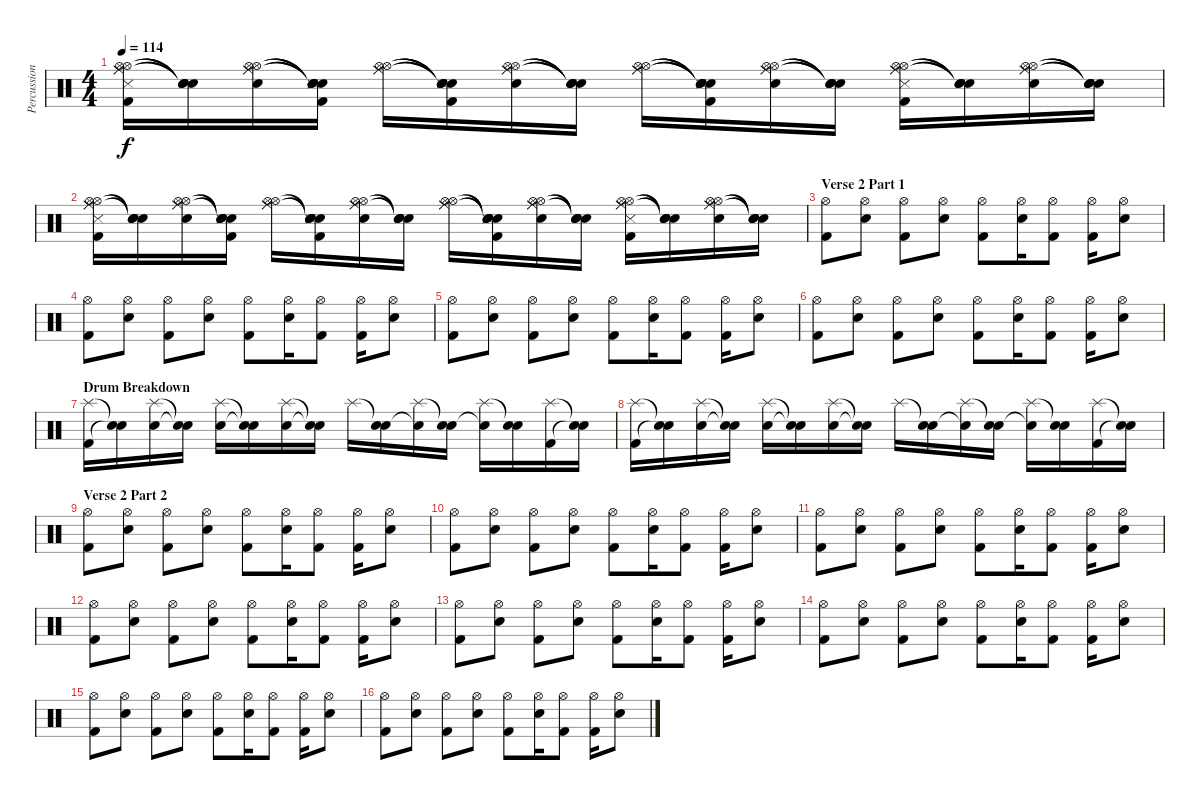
\track ("Percussion" "Percussion") {instrument percussion}
\staff {score}
\articulation defaults
\ts (4 4)
\tempo 114
\clef neutral
\ks c
("Ride (middle)" "Hi-Hat (open)" "Hi-Hat (open)" "Ride (middle)" "Snare (side stick) 3" "Kick (hit) 2").16{dy f} ("Snare (hit)"{t} "Snare (hit)"{t} "Snare (hit)"{t} "Snare (hit)"{t}).16 ("Ride (middle)" "Hi-Hat (open)" "Hi-Hat (open)" "Ride (middle)" "Snare (hit) 2").16 ("Snare (hit)"{t} "Snare (hit)"{t} "Snare (hit)"{t} "Snare (hit)"{t} "Snare (side stick) 3" "Kick (hit) 2").16 ("Ride (middle)" "Hi-Hat (open)" "Hi-Hat (open)" "Ride (middle)").16 ("Snare (hit)"{t} "Snare (hit)"{t} "Snare (hit)"{t} "Snare (hit)"{t} "Snare (side stick) 3" "Kick (hit) 2").16 ("Ride (middle)" "Hi-Hat (open)" "Hi-Hat (open)" "Ride (middle)" "Snare (hit) 2").16 ("Snare (hit)"{t} "Snare (hit)"{t} "Snare (hit)"{t} "Snare (hit)"{t}).16 ("Ride (middle)" "Hi-Hat (open)" "Hi-Hat (open)" "Ride (middle)").16 ("Snare (hit)"{t} "Snare (hit)"{t} "Snare (hit)"{t} "Snare (hit)"{t} "Snare (side stick) 3" "Kick (hit) 2").16 ("Ride (middle)" "Hi-Hat (open)" "Hi-Hat (open)" "Ride (middle)" "Snare (hit) 2").16 ("Snare (hit)"{t} "Snare (hit)"{t} "Snare (hit)"{t} "Snare (hit)"{t}).16 ("Ride (middle)" "Hi-Hat (open)" "Hi-Hat (open)" "Ride (middle)" "Snare (side stick) 3" "Kick (hit) 2").16 ("Snare (hit)"{t} "Snare (hit)"{t} "Snare (hit)"{t} "Snare (hit)"{t}).16 ("Ride (middle)" "Hi-Hat (open)" "Hi-Hat (open)" "Ride (middle)" "Snare (hit) 2").16 ("Snare (hit)"{t} "Snare (hit)"{t} "Snare (hit)"{t} "Snare (hit)"{t}).16 |
("Ride (middle)" "Hi-Hat (open)" "Hi-Hat (open)" "Ride (middle)" "Snare (side stick) 3" "Kick (hit) 2").16 ("Snare (hit)"{t} "Snare (hit)"{t} "Snare (hit)"{t} "Snare (hit)"{t}).16 ("Ride (middle)" "Hi-Hat (open)" "Hi-Hat (open)" "Ride (middle)" "Snare (hit) 2").16 ("Snare (hit)"{t} "Snare (hit)"{t} "Snare (hit)"{t} "Snare (hit)"{t} "Snare (side stick) 3" "Kick (hit) 2").16 ("Ride (middle)" "Hi-Hat (open)" "Hi-Hat (open)" "Ride (middle)").16 ("Snare (hit)"{t} "Snare (hit)"{t} "Snare (hit)"{t} "Snare (hit)"{t} "Snare (side stick) 3" "Kick (hit) 2").16 ("Ride (middle)" "Hi-Hat (open)" "Hi-Hat (open)" "Ride (middle)" "Snare (hit) 2").16 ("Snare (hit)"{t} "Snare (hit)"{t} "Snare (hit)"{t} "Snare (hit)"{t}).16 ("Ride (middle)" "Hi-Hat (open)" "Hi-Hat (open)" "Ride (middle)").16 ("Snare (hit)"{t} "Snare (hit)"{t} "Snare (hit)"{t} "Snare (hit)"{t} "Snare (side stick) 3" "Kick (hit) 2").16 ("Ride (middle)" "Hi-Hat (open)" "Hi-Hat (open)" "Ride (middle)" "Snare (hit) 2").16 ("Snare (hit)"{t} "Snare (hit)"{t} "Snare (hit)"{t} "Snare (hit)"{t}).16 ("Ride (middle)" "Hi-Hat (open)" "Hi-Hat (open)" "Ride (middle)" "Snare (side stick) 3" "Kick (hit) 2").16 ("Snare (hit)"{t} "Snare (hit)"{t} "Snare (hit)"{t} "Snare (hit)"{t}).16 ("Ride (middle)" "Hi-Hat (open)" "Hi-Hat (open)" "Ride (middle)" "Snare (hit) 2").16 ("Snare (hit)"{t} "Snare (hit)"{t} "Snare (hit)"{t} "Snare (hit)"{t}).16 |
\section ("" "Verse 2 Part 1")
("Hi-Hat (open)" "Kick (hit) 2").8 ("Hi-Hat (open)" "Snare (hit) 2").8 ("Hi-Hat (open)" "Kick (hit) 2").8 ("Hi-Hat (open)" "Snare (hit) 2").8 ("Hi-Hat (open)" "Kick (hit) 2").8 ("Hi-Hat (open)" "Snare (hit) 2").16 ("Hi-Hat (open)" "Kick (hit) 2").8 ("Hi-Hat (open)" "Kick (hit) 2").16 ("Hi-Hat (open)" "Snare (hit) 2").8 |
("Hi-Hat (open)" "Kick (hit) 2").8 ("Hi-Hat (open)" "Snare (hit) 2").8 ("Hi-Hat (open)" "Kick (hit) 2").8 ("Hi-Hat (open)" "Snare (hit) 2").8 ("Hi-Hat (open)" "Kick (hit) 2").8 ("Hi-Hat (open)" "Snare (hit) 2").16 ("Hi-Hat (open)" "Kick (hit) 2").8 ("Hi-Hat (open)" "Kick (hit) 2").16 ("Hi-Hat (open)" "Snare (hit) 2").8 |
("Hi-Hat (open)" "Kick (hit) 2").8 ("Hi-Hat (open)" "Snare (hit) 2").8 ("Hi-Hat (open)" "Kick (hit) 2").8 ("Hi-Hat (open)" "Snare (hit) 2").8 ("Hi-Hat (open)" "Kick (hit) 2").8 ("Hi-Hat (open)" "Snare (hit) 2").16 ("Hi-Hat (open)" "Kick (hit) 2").8 ("Hi-Hat (open)" "Kick (hit) 2").16 ("Hi-Hat (open)" "Snare (hit) 2").8 |
("Hi-Hat (open)" "Kick (hit) 2").8 ("Hi-Hat (open)" "Snare (hit) 2").8 ("Hi-Hat (open)" "Kick (hit) 2").8 ("Hi-Hat (open)" "Snare (hit) 2").8 ("Hi-Hat (open)" "Kick (hit) 2").8 ("Hi-Hat (open)" "Snare (hit) 2").16 ("Hi-Hat (open)" "Kick (hit) 2").8 ("Hi-Hat (open)" "Kick (hit) 2").16 ("Hi-Hat (open)" "Snare (hit) 2").8 |
\section ("" "Drum Breakdown")
("Splash (hit)" "Kick (hit) 2").16 ("Snare (hit)"{t} "Snare (hit)"{t}).16 ("Splash (hit)" "Snare (hit) 2").16 ("Snare (hit)"{t} "Snare (hit) 2"{t}).16 ("Splash (hit)" "Snare (hit) 2").16 ("Snare (hit)"{t} "Snare (hit)"{t}).16 ("Splash (hit)" "Snare (hit) 2").16 ("Snare (hit)"{t} "Snare (hit)"{t}).16 "Splash (hit)".16 ("Snare (hit)"{t} "Snare (hit) 2").16 ("Splash (hit)" "Snare (hit)"{t}).16 ("Snare (hit)"{t} "Snare (hit) 2").16 ("Splash (hit)" "Snare (hit)"{t}).16 ("Snare (hit)"{t} "Snare (hit) 2").16 ("Splash (hit)" "Kick (hit) 2").16 ("Snare (hit)"{t} "Snare (hit)"{t}).16 |
("Splash (hit)" "Kick (hit) 2").16 ("Snare (hit)"{t} "Snare (hit)"{t}).16 ("Splash (hit)" "Snare (hit) 2").16 ("Snare (hit)"{t} "Snare (hit) 2"{t}).16 ("Splash (hit)" "Snare (hit) 2").16 ("Snare (hit)"{t} "Snare (hit)"{t}).16 ("Splash (hit)" "Snare (hit) 2").16 ("Snare (hit)"{t} "Snare (hit)"{t}).16 "Splash (hit)".16 ("Snare (hit)"{t} "Snare (hit) 2").16 ("Splash (hit)" "Snare (hit)"{t}).16 ("Snare (hit)"{t} "Snare (hit) 2").16 ("Splash (hit)" "Snare (hit)"{t}).16 ("Snare (hit)"{t} "Snare (hit) 2").16 ("Splash (hit)" "Kick (hit) 2").16 ("Snare (hit)"{t} "Snare (hit)"{t}).16 |
\section ("" "Verse 2 Part 2")
("Hi-Hat (open)" "Kick (hit) 2").8 ("Hi-Hat (open)" "Snare (hit) 2").8 ("Hi-Hat (open)" "Kick (hit) 2").8 ("Hi-Hat (open)" "Snare (hit) 2").8 ("Hi-Hat (open)" "Kick (hit) 2").8 ("Hi-Hat (open)" "Snare (hit) 2").16 ("Hi-Hat (open)" "Kick (hit) 2").8 ("Hi-Hat (open)" "Kick (hit) 2").16 ("Hi-Hat (open)" "Snare (hit) 2").8 |
("Hi-Hat (open)" "Kick (hit) 2").8 ("Hi-Hat (open)" "Snare (hit) 2").8 ("Hi-Hat (open)" "Kick (hit) 2").8 ("Hi-Hat (open)" "Snare (hit) 2").8 ("Hi-Hat (open)" "Kick (hit) 2").8 ("Hi-Hat (open)" "Snare (hit) 2").16 ("Hi-Hat (open)" "Kick (hit) 2").8 ("Hi-Hat (open)" "Kick (hit) 2").16 ("Hi-Hat (open)" "Snare (hit) 2").8 |
("Hi-Hat (open)" "Kick (hit) 2").8 ("Hi-Hat (open)" "Snare (hit) 2").8 ("Hi-Hat (open)" "Kick (hit) 2").8 ("Hi-Hat (open)" "Snare (hit) 2").8 ("Hi-Hat (open)" "Kick (hit) 2").8 ("Hi-Hat (open)" "Snare (hit) 2").16 ("Hi-Hat (open)" "Kick (hit) 2").8 ("Hi-Hat (open)" "Kick (hit) 2").16 ("Hi-Hat (open)" "Snare (hit) 2").8 |
("Hi-Hat (open)" "Kick (hit) 2").8 ("Hi-Hat (open)" "Snare (hit) 2").8 ("Hi-Hat (open)" "Kick (hit) 2").8 ("Hi-Hat (open)" "Snare (hit) 2").8 ("Hi-Hat (open)" "Kick (hit) 2").8 ("Hi-Hat (open)" "Snare (hit) 2").16 ("Hi-Hat (open)" "Kick (hit) 2").8 ("Hi-Hat (open)" "Kick (hit) 2").16 ("Hi-Hat (open)" "Snare (hit) 2").8 |
("Hi-Hat (open)" "Kick (hit) 2").8 ("Hi-Hat (open)" "Snare (hit) 2").8 ("Hi-Hat (open)" "Kick (hit) 2").8 ("Hi-Hat (open)" "Snare (hit) 2").8 ("Hi-Hat (open)" "Kick (hit) 2").8 ("Hi-Hat (open)" "Snare (hit) 2").16 ("Hi-Hat (open)" "Kick (hit) 2").8 ("Hi-Hat (open)" "Kick (hit) 2").16 ("Hi-Hat (open)" "Snare (hit) 2").8 |
("Hi-Hat (open)" "Kick (hit) 2").8 ("Hi-Hat (open)" "Snare (hit) 2").8 ("Hi-Hat (open)" "Kick (hit) 2").8 ("Hi-Hat (open)" "Snare (hit) 2").8 ("Hi-Hat (open)" "Kick (hit) 2").8 ("Hi-Hat (open)" "Snare (hit) 2").16 ("Hi-Hat (open)" "Kick (hit) 2").8 ("Hi-Hat (open)" "Kick (hit) 2").16 ("Hi-Hat (open)" "Snare (hit) 2").8 |
("Hi-Hat (open)" "Kick (hit) 2").8 ("Hi-Hat (open)" "Snare (hit) 2").8 ("Hi-Hat (open)" "Kick (hit) 2").8 ("Hi-Hat (open)" "Snare (hit) 2").8 ("Hi-Hat (open)" "Kick (hit) 2").8 ("Hi-Hat (open)" "Snare (hit) 2").16 ("Hi-Hat (open)" "Kick (hit) 2").8 ("Hi-Hat (open)" "Kick (hit) 2").16 ("Hi-Hat (open)" "Snare (hit) 2").8 |
("Hi-Hat (open)" "Kick (hit) 2").8 ("Hi-Hat (open)" "Snare (hit) 2").8 ("Hi-Hat (open)" "Kick (hit) 2").8 ("Hi-Hat (open)" "Snare (hit) 2").8 ("Hi-Hat (open)" "Kick (hit) 2").8 ("Hi-Hat (open)" "Snare (hit) 2").16 ("Hi-Hat (open)" "Kick (hit) 2").8 ("Hi-Hat (open)" "Kick (hit) 2").16 ("Hi-Hat (open)" "Snare (hit) 2").8
